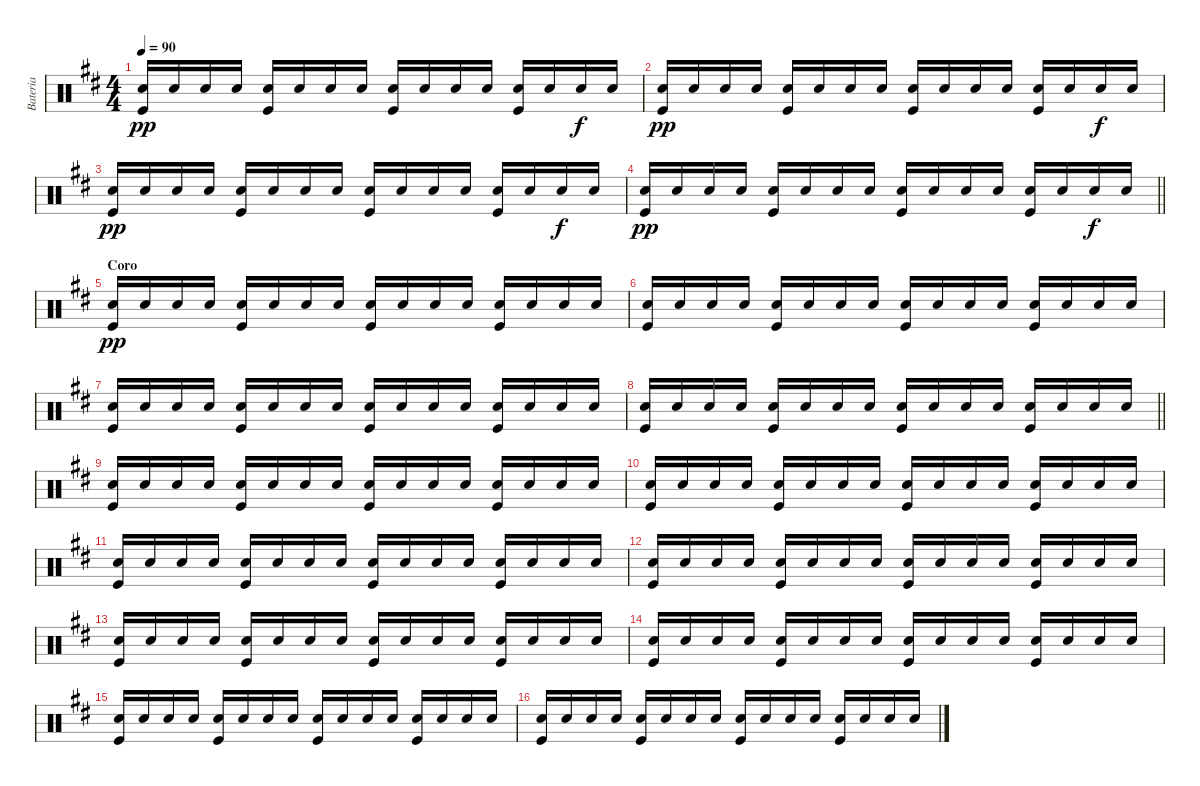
\track ("Bateria" "Bateria") {instrument percussion}
\staff {score}
\articulation defaults
\ts (4 4)
\tempo 90
\clef neutral
\ks d
("Snare (hit) 2" "Kick (hit)").16{dy pp} "Snare (hit) 2".16 "Snare (hit) 2".16 "Snare (hit) 2".16 ("Snare (hit) 2" "Kick (hit)").16 "Snare (hit) 2".16 "Snare (hit) 2".16 "Snare (hit) 2".16 ("Snare (hit) 2" "Kick (hit)").16 "Snare (hit) 2".16 "Snare (hit) 2".16 "Snare (hit) 2".16 ("Snare (hit) 2" "Kick (hit)").16 "Snare (hit) 2".16 "Snare (hit) 2".16{dy f} "Snare (hit) 2".16 |
("Snare (hit) 2" "Kick (hit)").16{dy pp} "Snare (hit) 2".16 "Snare (hit) 2".16 "Snare (hit) 2".16 ("Snare (hit) 2" "Kick (hit)").16 "Snare (hit) 2".16 "Snare (hit) 2".16 "Snare (hit) 2".16 ("Snare (hit) 2" "Kick (hit)").16 "Snare (hit) 2".16 "Snare (hit) 2".16 "Snare (hit) 2".16 ("Snare (hit) 2" "Kick (hit)").16 "Snare (hit) 2".16 "Snare (hit) 2".16{dy f} "Snare (hit) 2".16 |
("Snare (hit) 2" "Kick (hit)").16{dy pp} "Snare (hit) 2".16 "Snare (hit) 2".16 "Snare (hit) 2".16 ("Snare (hit) 2" "Kick (hit)").16 "Snare (hit) 2".16 "Snare (hit) 2".16 "Snare (hit) 2".16 ("Snare (hit) 2" "Kick (hit)").16 "Snare (hit) 2".16 "Snare (hit) 2".16 "Snare (hit) 2".16 ("Snare (hit) 2" "Kick (hit)").16 "Snare (hit) 2".16 "Snare (hit) 2".16{dy f} "Snare (hit) 2".16 |
\barLineRight lightlight
("Snare (hit) 2" "Kick (hit)").16{dy pp} "Snare (hit) 2".16 "Snare (hit) 2".16 "Snare (hit) 2".16 ("Snare (hit) 2" "Kick (hit)").16 "Snare (hit) 2".16 "Snare (hit) 2".16 "Snare (hit) 2".16 ("Snare (hit) 2" "Kick (hit)").16 "Snare (hit) 2".16 "Snare (hit) 2".16 "Snare (hit) 2".16 ("Snare (hit) 2" "Kick (hit)").16 "Snare (hit) 2".16 "Snare (hit) 2".16{dy f} "Snare (hit) 2".16 |
\section ("" "Coro")
("Snare (hit) 2" "Kick (hit)").16{dy pp} "Snare (hit) 2".16 "Snare (hit) 2".16 "Snare (hit) 2".16 ("Snare (hit) 2" "Kick (hit)").16 "Snare (hit) 2".16 "Snare (hit) 2".16 "Snare (hit) 2".16 ("Snare (hit) 2" "Kick (hit)").16 "Snare (hit) 2".16 "Snare (hit) 2".16 "Snare (hit) 2".16 ("Snare (hit) 2" "Kick (hit)").16 "Snare (hit) 2".16 "Snare (hit) 2".16 "Snare (hit) 2".16 |
("Snare (hit) 2" "Kick (hit)").16 "Snare (hit) 2".16 "Snare (hit) 2".16 "Snare (hit) 2".16 ("Snare (hit) 2" "Kick (hit)").16 "Snare (hit) 2".16 "Snare (hit) 2".16 "Snare (hit) 2".16 ("Snare (hit) 2" "Kick (hit)").16 "Snare (hit) 2".16 "Snare (hit) 2".16 "Snare (hit) 2".16 ("Snare (hit) 2" "Kick (hit)").16 "Snare (hit) 2".16 "Snare (hit) 2".16 "Snare (hit) 2".16 |
("Snare (hit) 2" "Kick (hit)").16 "Snare (hit) 2".16 "Snare (hit) 2".16 "Snare (hit) 2".16 ("Snare (hit) 2" "Kick (hit)").16 "Snare (hit) 2".16 "Snare (hit) 2".16 "Snare (hit) 2".16 ("Snare (hit) 2" "Kick (hit)").16 "Snare (hit) 2".16 "Snare (hit) 2".16 "Snare (hit) 2".16 ("Snare (hit) 2" "Kick (hit)").16 "Snare (hit) 2".16 "Snare (hit) 2".16 "Snare (hit) 2".16 |
\barLineRight lightlight
("Snare (hit) 2" "Kick (hit)").16 "Snare (hit) 2".16 "Snare (hit) 2".16 "Snare (hit) 2".16 ("Snare (hit) 2" "Kick (hit)").16 "Snare (hit) 2".16 "Snare (hit) 2".16 "Snare (hit) 2".16 ("Snare (hit) 2" "Kick (hit)").16 "Snare (hit) 2".16 "Snare (hit) 2".16 "Snare (hit) 2".16 ("Snare (hit) 2" "Kick (hit)").16 "Snare (hit) 2".16 "Snare (hit) 2".16 "Snare (hit) 2".16 |
("Snare (hit) 2" "Kick (hit)").16 "Snare (hit) 2".16 "Snare (hit) 2".16 "Snare (hit) 2".16 ("Snare (hit) 2" "Kick (hit)").16 "Snare (hit) 2".16 "Snare (hit) 2".16 "Snare (hit) 2".16 ("Snare (hit) 2" "Kick (hit)").16 "Snare (hit) 2".16 "Snare (hit) 2".16 "Snare (hit) 2".16 ("Snare (hit) 2" "Kick (hit)").16 "Snare (hit) 2".16 "Snare (hit) 2".16 "Snare (hit) 2".16 |
("Snare (hit) 2" "Kick (hit)").16 "Snare (hit) 2".16 "Snare (hit) 2".16 "Snare (hit) 2".16 ("Snare (hit) 2" "Kick (hit)").16 "Snare (hit) 2".16 "Snare (hit) 2".16 "Snare (hit) 2".16 ("Snare (hit) 2" "Kick (hit)").16 "Snare (hit) 2".16 "Snare (hit) 2".16 "Snare (hit) 2".16 ("Snare (hit) 2" "Kick (hit)").16 "Snare (hit) 2".16 "Snare (hit) 2".16 "Snare (hit) 2".16 |
("Snare (hit) 2" "Kick (hit)").16 "Snare (hit) 2".16 "Snare (hit) 2".16 "Snare (hit) 2".16 ("Snare (hit) 2" "Kick (hit)").16 "Snare (hit) 2".16 "Snare (hit) 2".16 "Snare (hit) 2".16 ("Snare (hit) 2" "Kick (hit)").16 "Snare (hit) 2".16 "Snare (hit) 2".16 "Snare (hit) 2".16 ("Snare (hit) 2" "Kick (hit)").16 "Snare (hit) 2".16 "Snare (hit) 2".16 "Snare (hit) 2".16 |
("Snare (hit) 2" "Kick (hit)").16 "Snare (hit) 2".16 "Snare (hit) 2".16 "Snare (hit) 2".16 ("Snare (hit) 2" "Kick (hit)").16 "Snare (hit) 2".16 "Snare (hit) 2".16 "Snare (hit) 2".16 ("Snare (hit) 2" "Kick (hit)").16 "Snare (hit) 2".16 "Snare (hit) 2".16 "Snare (hit) 2".16 ("Snare (hit) 2" "Kick (hit)").16 "Snare (hit) 2".16 "Snare (hit) 2".16 "Snare (hit) 2".16 |
("Snare (hit) 2" "Kick (hit)").16 "Snare (hit) 2".16 "Snare (hit) 2".16 "Snare (hit) 2".16 ("Snare (hit) 2" "Kick (hit)").16 "Snare (hit) 2".16 "Snare (hit) 2".16 "Snare (hit) 2".16 ("Snare (hit) 2" "Kick (hit)").16 "Snare (hit) 2".16 "Snare (hit) 2".16 "Snare (hit) 2".16 ("Snare (hit) 2" "Kick (hit)").16 "Snare (hit) 2".16 "Snare (hit) 2".16 "Snare (hit) 2".16 |
("Snare (hit) 2" "Kick (hit)").16 "Snare (hit) 2".16 "Snare (hit) 2".16 "Snare (hit) 2".16 ("Snare (hit) 2" "Kick (hit)").16 "Snare (hit) 2".16 "Snare (hit) 2".16 "Snare (hit) 2".16 ("Snare (hit) 2" "Kick (hit)").16 "Snare (hit) 2".16 "Snare (hit) 2".16 "Snare (hit) 2".16 ("Snare (hit) 2" "Kick (hit)").16 "Snare (hit) 2".16 "Snare (hit) 2".16 "Snare (hit) 2".16 |
("Snare (hit) 2" "Kick (hit)").16 "Snare (hit) 2".16 "Snare (hit) 2".16 "Snare (hit) 2".16 ("Snare (hit) 2" "Kick (hit)").16 "Snare (hit) 2".16 "Snare (hit) 2".16 "Snare (hit) 2".16 ("Snare (hit) 2" "Kick (hit)").16 "Snare (hit) 2".16 "Snare (hit) 2".16 "Snare (hit) 2".16 ("Snare (hit) 2" "Kick (hit)").16 "Snare (hit) 2".16 "Snare (hit) 2".16 "Snare (hit) 2".16 |
("Snare (hit) 2" "Kick (hit)").16 "Snare (hit) 2".16 "Snare (hit) 2".16 "Snare (hit) 2".16 ("Snare (hit) 2" "Kick (hit)").16 "Snare (hit) 2".16 "Snare (hit) 2".16 "Snare (hit) 2".16 ("Snare (hit) 2" "Kick (hit)").16 "Snare (hit) 2".16 "Snare (hit) 2".16 "Snare (hit) 2".16 ("Snare (hit) 2" "Kick (hit)").16 "Snare (hit) 2".16 "Snare (hit) 2".16 "Snare (hit) 2".16
